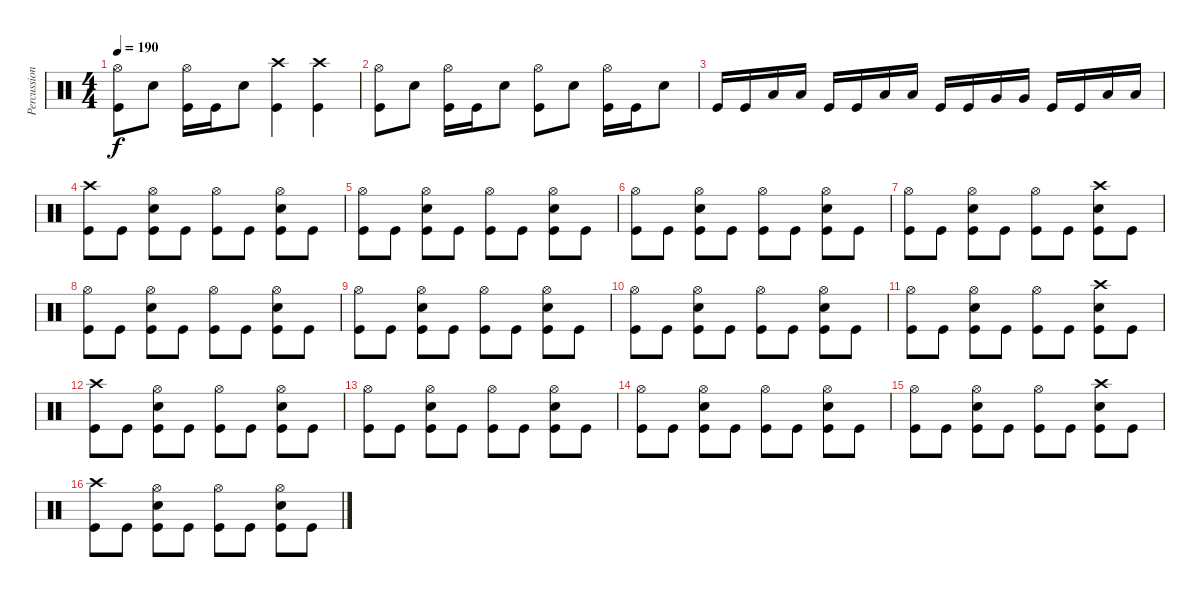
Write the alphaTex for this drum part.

\track ("Percussion" "Percussion") {instrument percussion}
\staff {score}
\articulation defaults
\ts (4 4)
\tempo 190
\clef neutral
\ks c
("Hi-Hat (open)" "Kick (hit)").8{dy f} "Snare (hit) 2".8 ("Hi-Hat (open)" "Kick (hit)").16 "Kick (hit)".16 "Snare (hit) 2".8 ("Crash high (hit)" "Kick (hit)").4 ("Crash high (hit)" "Kick (hit)").4 |
("Hi-Hat (open)" "Kick (hit)").8 "Snare (hit) 2".8 ("Hi-Hat (open)" "Kick (hit)").16 "Kick (hit)".16 "Snare (hit) 2".8 ("Hi-Hat (open)" "Kick (hit)").8 "Snare (hit) 2".8 ("Hi-Hat (open)" "Kick (hit)").16 "Kick (hit)".16 "Snare (hit) 2".8 |
"Kick (hit)".16 "Kick (hit)".16 "Low Tom (hit)".16 "Low Tom (hit)".16 "Kick (hit)".16 "Kick (hit)".16 "Low Tom (hit)".16 "Low Tom (hit)".16 "Kick (hit)".16 "Kick (hit)".16 "Very Low Tom (hit)".16 "Very Low Tom (hit)".16 "Kick (hit)".16 "Kick (hit)".16 "Low Floor Tom (hit)".16 "Low Floor Tom (hit)".16 |
("Crash high (hit)" "Kick (hit)").8 "Kick (hit)".8 ("Hi-Hat (open)" "Snare (hit) 2" "Kick (hit)").8 "Kick (hit)".8 ("Hi-Hat (open)" "Kick (hit)").8 "Kick (hit)".8 ("Hi-Hat (open)" "Snare (hit) 2" "Kick (hit)").8 "Kick (hit)".8 |
("Hi-Hat (open)" "Kick (hit)").8 "Kick (hit)".8 ("Hi-Hat (open)" "Snare (hit) 2" "Kick (hit)").8 "Kick (hit)".8 ("Hi-Hat (open)" "Kick (hit)").8 "Kick (hit)".8 ("Hi-Hat (open)" "Snare (hit) 2" "Kick (hit)").8 "Kick (hit)".8 |
("Hi-Hat (open)" "Kick (hit)").8 "Kick (hit)".8 ("Hi-Hat (open)" "Snare (hit) 2" "Kick (hit)").8 "Kick (hit)".8 ("Hi-Hat (open)" "Kick (hit)").8 "Kick (hit)".8 ("Hi-Hat (open)" "Snare (hit) 2" "Kick (hit)").8 "Kick (hit)".8 |
("Hi-Hat (open)" "Kick (hit)").8 "Kick (hit)".8 ("Hi-Hat (open)" "Snare (hit) 2" "Kick (hit)").8 "Kick (hit)".8 ("Hi-Hat (open)" "Kick (hit)").8 "Kick (hit)".8 ("Crash high (hit)" "Snare (hit) 2" "Kick (hit)").8 "Kick (hit)".8 |
("Hi-Hat (open)" "Kick (hit)").8 "Kick (hit)".8 ("Hi-Hat (open)" "Snare (hit) 2" "Kick (hit)").8 "Kick (hit)".8 ("Hi-Hat (open)" "Kick (hit)").8 "Kick (hit)".8 ("Hi-Hat (open)" "Snare (hit) 2" "Kick (hit)").8 "Kick (hit)".8 |
("Hi-Hat (open)" "Kick (hit)").8 "Kick (hit)".8 ("Hi-Hat (open)" "Snare (hit) 2" "Kick (hit)").8 "Kick (hit)".8 ("Hi-Hat (open)" "Kick (hit)").8 "Kick (hit)".8 ("Hi-Hat (open)" "Snare (hit) 2" "Kick (hit)").8 "Kick (hit)".8 |
("Hi-Hat (open)" "Kick (hit)").8 "Kick (hit)".8 ("Hi-Hat (open)" "Snare (hit) 2" "Kick (hit)").8 "Kick (hit)".8 ("Hi-Hat (open)" "Kick (hit)").8 "Kick (hit)".8 ("Hi-Hat (open)" "Snare (hit) 2" "Kick (hit)").8 "Kick (hit)".8 |
("Hi-Hat (open)" "Kick (hit)").8 "Kick (hit)".8 ("Hi-Hat (open)" "Snare (hit) 2" "Kick (hit)").8 "Kick (hit)".8 ("Hi-Hat (open)" "Kick (hit)").8 "Kick (hit)".8 ("Crash high (hit)" "Snare (hit) 2" "Kick (hit)").8 "Kick (hit)".8 |
("Crash high (hit)" "Kick (hit)").8 "Kick (hit)".8 ("Hi-Hat (open)" "Snare (hit) 2" "Kick (hit)").8 "Kick (hit)".8 ("Hi-Hat (open)" "Kick (hit)").8 "Kick (hit)".8 ("Hi-Hat (open)" "Snare (hit) 2" "Kick (hit)").8 "Kick (hit)".8 |
("Hi-Hat (open)" "Kick (hit)").8 "Kick (hit)".8 ("Hi-Hat (open)" "Snare (hit) 2" "Kick (hit)").8 "Kick (hit)".8 ("Hi-Hat (open)" "Kick (hit)").8 "Kick (hit)".8 ("Hi-Hat (open)" "Snare (hit) 2" "Kick (hit)").8 "Kick (hit)".8 |
("Hi-Hat (open)" "Kick (hit)").8 "Kick (hit)".8 ("Hi-Hat (open)" "Snare (hit) 2" "Kick (hit)").8 "Kick (hit)".8 ("Hi-Hat (open)" "Kick (hit)").8 "Kick (hit)".8 ("Hi-Hat (open)" "Snare (hit) 2" "Kick (hit)").8 "Kick (hit)".8 |
("Hi-Hat (open)" "Kick (hit)").8 "Kick (hit)".8 ("Hi-Hat (open)" "Snare (hit) 2" "Kick (hit)").8 "Kick (hit)".8 ("Hi-Hat (open)" "Kick (hit)").8 "Kick (hit)".8 ("Crash high (hit)" "Snare (hit) 2" "Kick (hit)").8 "Kick (hit)".8 |
("Crash high (hit)" "Kick (hit)").8 "Kick (hit)".8 ("Hi-Hat (open)" "Snare (hit) 2" "Kick (hit)").8 "Kick (hit)".8 ("Hi-Hat (open)" "Kick (hit)").8 "Kick (hit)".8 ("Hi-Hat (open)" "Snare (hit) 2" "Kick (hit)").8 "Kick (hit)".8
